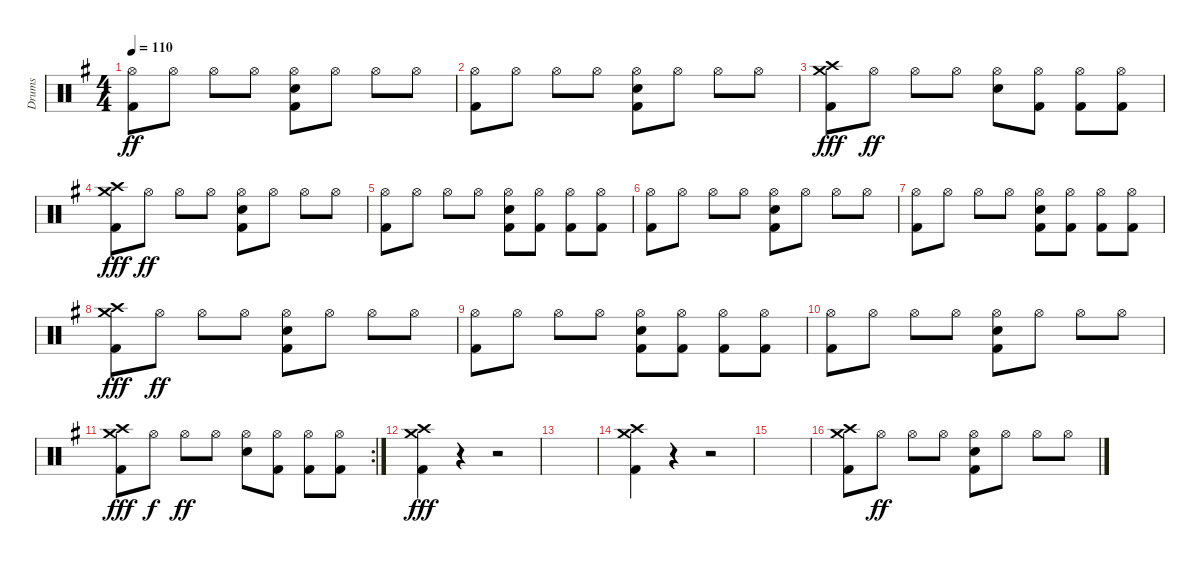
\track ("Drums" "Drums") {instrument percussion}
\staff {score}
\articulation defaults
\ts (4 4)
\tempo 110
\clef neutral
\ks eminor
("Kick (hit) 2" "Hi-Hat (open)").8{dy ff} "Hi-Hat (open)".8 "Hi-Hat (open)".8 "Hi-Hat (open)".8 ("Kick (hit) 2" "Electric Snare (hit)" "Hi-Hat (open)").8 "Hi-Hat (open)".8 "Hi-Hat (open)".8 "Hi-Hat (open)".8 |
("Kick (hit) 2" "Hi-Hat (open)").8 "Hi-Hat (open)".8 "Hi-Hat (open)".8 "Hi-Hat (open)".8 ("Kick (hit) 2" "Electric Snare (hit)" "Hi-Hat (open)").8 "Hi-Hat (open)".8 "Hi-Hat (open)".8 "Hi-Hat (open)".8 |
("Kick (hit) 2" "Crash high (hit)" "Crash medium (hit)").8{dy fff} "Hi-Hat (open)".8{dy ff} "Hi-Hat (open)".8 "Hi-Hat (open)".8 ("Electric Snare (hit)" "Hi-Hat (open)").8 ("Kick (hit) 2" "Hi-Hat (open)").8 ("Kick (hit) 2" "Hi-Hat (open)").8 ("Kick (hit) 2" "Hi-Hat (open)").8 |
("Kick (hit) 2" "Crash high (hit)" "Crash medium (hit)").8{dy fff} "Hi-Hat (open)".8{dy ff} "Hi-Hat (open)".8 "Hi-Hat (open)".8 ("Kick (hit) 2" "Electric Snare (hit)" "Hi-Hat (open)").8 "Hi-Hat (open)".8 "Hi-Hat (open)".8 "Hi-Hat (open)".8 |
("Kick (hit) 2" "Hi-Hat (open)").8 "Hi-Hat (open)".8 "Hi-Hat (open)".8 "Hi-Hat (open)".8 ("Kick (hit) 2" "Electric Snare (hit)" "Hi-Hat (open)").8 ("Kick (hit) 2" "Hi-Hat (open)").8 ("Kick (hit) 2" "Hi-Hat (open)").8 ("Kick (hit) 2" "Hi-Hat (open)").8 |
("Kick (hit) 2" "Hi-Hat (open)").8 "Hi-Hat (open)".8 "Hi-Hat (open)".8 "Hi-Hat (open)".8 ("Kick (hit) 2" "Electric Snare (hit)" "Hi-Hat (open)").8 "Hi-Hat (open)".8 "Hi-Hat (open)".8 "Hi-Hat (open)".8 |
("Kick (hit) 2" "Hi-Hat (open)").8 "Hi-Hat (open)".8 "Hi-Hat (open)".8 "Hi-Hat (open)".8 ("Kick (hit) 2" "Electric Snare (hit)" "Hi-Hat (open)").8 ("Kick (hit) 2" "Hi-Hat (open)").8 ("Kick (hit) 2" "Hi-Hat (open)").8 ("Kick (hit) 2" "Hi-Hat (open)").8 |
("Kick (hit) 2" "Crash high (hit)" "Crash medium (hit)").8{dy fff} "Hi-Hat (open)".8{dy ff} "Hi-Hat (open)".8 "Hi-Hat (open)".8 ("Kick (hit) 2" "Electric Snare (hit)" "Hi-Hat (open)").8 "Hi-Hat (open)".8 "Hi-Hat (open)".8 "Hi-Hat (open)".8 |
("Kick (hit) 2" "Hi-Hat (open)").8 "Hi-Hat (open)".8 "Hi-Hat (open)".8 "Hi-Hat (open)".8 ("Kick (hit) 2" "Electric Snare (hit)" "Hi-Hat (open)").8 ("Kick (hit) 2" "Hi-Hat (open)").8 ("Kick (hit) 2" "Hi-Hat (open)").8 ("Kick (hit) 2" "Hi-Hat (open)").8 |
("Kick (hit) 2" "Hi-Hat (open)").8 "Hi-Hat (open)".8 "Hi-Hat (open)".8 "Hi-Hat (open)".8 ("Kick (hit) 2" "Electric Snare (hit)" "Hi-Hat (open)").8 "Hi-Hat (open)".8 "Hi-Hat (open)".8 "Hi-Hat (open)".8 |
\rc 2
("Kick (hit) 2" "Crash high (hit)" "Crash medium (hit)").8{dy fff} "Hi-Hat (open)".8{dy f} "Hi-Hat (open)".8{dy ff} "Hi-Hat (open)".8 ("Electric Snare (hit)" "Hi-Hat (open)").8 ("Kick (hit) 2" "Hi-Hat (open)").8 ("Kick (hit) 2" "Hi-Hat (open)").8 ("Kick (hit) 2" "Hi-Hat (open)").8 |
("Crash high (hit)" "Kick (hit) 2" "Crash medium (hit)").4{dy fff} r.4 r.2 |
|
("Crash high (hit)" "Kick (hit) 2" "Crash medium (hit)").4 r.4 r.2 |
|
("Kick (hit) 2" "Crash high (hit)" "Crash medium (hit)").8 "Hi-Hat (open)".8{dy ff} "Hi-Hat (open)".8 "Hi-Hat (open)".8 ("Kick (hit) 2" "Electric Snare (hit)" "Hi-Hat (open)").8 "Hi-Hat (open)".8 "Hi-Hat (open)".8 "Hi-Hat (open)".8
